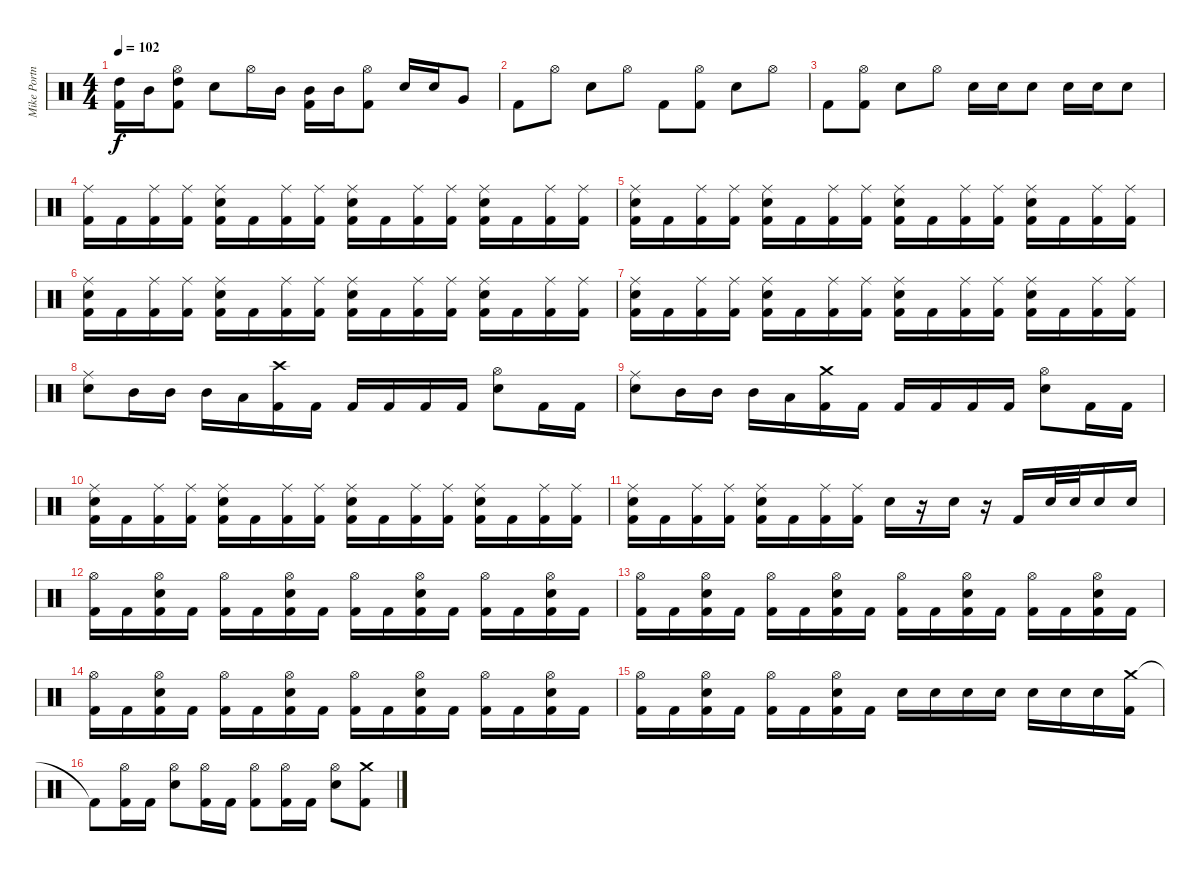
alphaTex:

\track ("Mike Portnoy Drum " "Mike Portn") {instrument percussion}
\staff {score}
\articulation defaults
\ts (4 4)
\tempo 102
\clef neutral
\ks c
("High Tom (hit)" "Kick (hit) 2").16{dy f} "Mid Tom (hit)".16 ("Hi-Hat (open)" "High Tom (hit)" "Kick (hit) 2").8 "Electric Snare (hit)".8 "Hi-Hat (open)".16 "Mid Tom (hit)".16 ("Mid Tom (hit)" "Kick (hit) 2").16 "Mid Tom (hit)".16 ("Hi-Hat (open)" "Kick (hit) 2").8 "Electric Snare (hit)".16 "Electric Snare (hit)".16 "Very Low Tom (hit)".8 |
"Kick (hit) 2".8 "Hi-Hat (open)".8 "Electric Snare (hit)".8 "Hi-Hat (open)".8 "Kick (hit) 2".8 ("Hi-Hat (open)" "Kick (hit) 2").8 "Electric Snare (hit)".8 "Hi-Hat (open)".8 |
"Kick (hit) 2".8 ("Hi-Hat (open)" "Kick (hit) 2").8 "Electric Snare (hit)".8 "Hi-Hat (open)".8 "Electric Snare (hit)".16 "Electric Snare (hit)".16 "Electric Snare (hit)".8 "Electric Snare (hit)".16 "Electric Snare (hit)".16 "Electric Snare (hit)".8 |
("Ride (middle)" "Kick (hit) 2").16 "Kick (hit) 2".16 ("Ride (middle)" "Kick (hit) 2").16 ("Ride (middle)" "Kick (hit) 2").16 ("Ride (middle)" "Electric Snare (hit)" "Kick (hit) 2").16 "Kick (hit) 2".16 ("Ride (middle)" "Kick (hit) 2").16 ("Ride (middle)" "Kick (hit) 2").16 ("Ride (middle)" "Electric Snare (hit)" "Kick (hit) 2").16 "Kick (hit) 2".16 ("Ride (middle)" "Kick (hit) 2").16 ("Ride (middle)" "Kick (hit) 2").16 ("Ride (middle)" "Electric Snare (hit)" "Kick (hit) 2").16 "Kick (hit) 2".16 ("Ride (middle)" "Kick (hit) 2").16 ("Ride (middle)" "Kick (hit) 2").16 |
("Ride (middle)" "Electric Snare (hit)" "Kick (hit) 2").16 "Kick (hit) 2".16 ("Ride (middle)" "Kick (hit) 2").16 ("Ride (middle)" "Kick (hit) 2").16 ("Ride (middle)" "Electric Snare (hit)" "Kick (hit) 2").16 "Kick (hit) 2".16 ("Ride (middle)" "Kick (hit) 2").16 ("Ride (middle)" "Kick (hit) 2").16 ("Ride (middle)" "Electric Snare (hit)" "Kick (hit) 2").16 "Kick (hit) 2".16 ("Ride (middle)" "Kick (hit) 2").16 ("Ride (middle)" "Kick (hit) 2").16 ("Ride (middle)" "Electric Snare (hit)" "Kick (hit) 2").16 "Kick (hit) 2".16 ("Ride (middle)" "Kick (hit) 2").16 ("Ride (middle)" "Kick (hit) 2").16 |
("Ride (middle)" "Electric Snare (hit)" "Kick (hit) 2").16 "Kick (hit) 2".16 ("Ride (middle)" "Kick (hit) 2").16 ("Ride (middle)" "Kick (hit) 2").16 ("Ride (middle)" "Electric Snare (hit)" "Kick (hit) 2").16 "Kick (hit) 2".16 ("Ride (middle)" "Kick (hit) 2").16 ("Ride (middle)" "Kick (hit) 2").16 ("Ride (middle)" "Electric Snare (hit)" "Kick (hit) 2").16 "Kick (hit) 2".16 ("Ride (middle)" "Kick (hit) 2").16 ("Ride (middle)" "Kick (hit) 2").16 ("Ride (middle)" "Electric Snare (hit)" "Kick (hit) 2").16 "Kick (hit) 2".16 ("Ride (middle)" "Kick (hit) 2").16 ("Ride (middle)" "Kick (hit) 2").16 |
("Ride (middle)" "Electric Snare (hit)" "Kick (hit) 2").16 "Kick (hit) 2".16 ("Ride (middle)" "Kick (hit) 2").16 ("Ride (middle)" "Kick (hit) 2").16 ("Ride (middle)" "Electric Snare (hit)" "Kick (hit) 2").16 "Kick (hit) 2".16 ("Ride (middle)" "Kick (hit) 2").16 ("Ride (middle)" "Kick (hit) 2").16 ("Ride (middle)" "Electric Snare (hit)" "Kick (hit) 2").16 "Kick (hit) 2".16 ("Ride (middle)" "Kick (hit) 2").16 ("Ride (middle)" "Kick (hit) 2").16 ("Ride (middle)" "Electric Snare (hit)" "Kick (hit) 2").16 "Kick (hit) 2".16 ("Ride (middle)" "Kick (hit) 2").16 ("Ride (middle)" "Kick (hit) 2").16 |
("Ride (middle)" "Electric Snare (hit)").8 "Mid Tom (hit)".16 "Mid Tom (hit)".16 "Mid Tom (hit)".16 "Low Tom (hit)".16 ("Crash high (hit)" "Kick (hit) 2").16 "Kick (hit) 2".16 "Kick (hit) 2".16 "Kick (hit) 2".16 "Kick (hit) 2".16 "Kick (hit) 2".16 ("Hi-Hat (open)" "Electric Snare (hit)").8 "Kick (hit) 2".16 "Kick (hit) 2".16 |
("Ride (middle)" "Electric Snare (hit)").8 "Mid Tom (hit)".16 "Mid Tom (hit)".16 "Mid Tom (hit)".16 "Low Tom (hit)".16 ("Crash medium (hit)" "Kick (hit) 2").16 "Kick (hit) 2".16 "Kick (hit) 2".16 "Kick (hit) 2".16 "Kick (hit) 2".16 "Kick (hit) 2".16 ("Hi-Hat (open)" "Electric Snare (hit)").8 "Kick (hit) 2".16 "Kick (hit) 2".16 |
("Ride (middle)" "Electric Snare (hit)" "Kick (hit) 2").16 "Kick (hit) 2".16 ("Ride (middle)" "Kick (hit) 2").16 ("Ride (middle)" "Kick (hit) 2").16 ("Ride (middle)" "Electric Snare (hit)" "Kick (hit) 2").16 "Kick (hit) 2".16 ("Ride (middle)" "Kick (hit) 2").16 ("Ride (middle)" "Kick (hit) 2").16 ("Ride (middle)" "Electric Snare (hit)" "Kick (hit) 2").16 "Kick (hit) 2".16 ("Ride (middle)" "Kick (hit) 2").16 ("Ride (middle)" "Kick (hit) 2").16 ("Ride (middle)" "Electric Snare (hit)" "Kick (hit) 2").16 "Kick (hit) 2".16 ("Ride (middle)" "Kick (hit) 2").16 ("Ride (middle)" "Kick (hit) 2").16 |
("Ride (middle)" "Electric Snare (hit)" "Kick (hit) 2").16 "Kick (hit) 2".16 ("Ride (middle)" "Kick (hit) 2").16 ("Ride (middle)" "Kick (hit) 2").16 ("Ride (middle)" "Electric Snare (hit)" "Kick (hit) 2").16 "Kick (hit) 2".16 ("Ride (middle)" "Kick (hit) 2").16 ("Ride (middle)" "Kick (hit) 2").16 "Electric Snare (hit)".16 r.16 "Electric Snare (hit)".16 r.16 "Kick (hit) 2".16 "Electric Snare (hit)".32 "Electric Snare (hit)".32 "Electric Snare (hit)".16 "Electric Snare (hit)".16 |
("Hi-Hat (open)" "Kick (hit) 2").16 "Kick (hit) 2".16 ("Hi-Hat (open)" "Electric Snare (hit)" "Kick (hit) 2").16 "Kick (hit) 2".16 ("Hi-Hat (open)" "Kick (hit) 2").16 "Kick (hit) 2".16 ("Hi-Hat (open)" "Electric Snare (hit)" "Kick (hit) 2").16 "Kick (hit) 2".16 ("Hi-Hat (open)" "Kick (hit) 2").16 "Kick (hit) 2".16 ("Hi-Hat (open)" "Electric Snare (hit)" "Kick (hit) 2").16 "Kick (hit) 2".16 ("Hi-Hat (open)" "Kick (hit) 2").16 "Kick (hit) 2".16 ("Hi-Hat (open)" "Electric Snare (hit)" "Kick (hit) 2").16 "Kick (hit) 2".16 |
("Hi-Hat (open)" "Kick (hit) 2").16 "Kick (hit) 2".16 ("Hi-Hat (open)" "Electric Snare (hit)" "Kick (hit) 2").16 "Kick (hit) 2".16 ("Hi-Hat (open)" "Kick (hit) 2").16 "Kick (hit) 2".16 ("Hi-Hat (open)" "Electric Snare (hit)" "Kick (hit) 2").16 "Kick (hit) 2".16 ("Hi-Hat (open)" "Kick (hit) 2").16 "Kick (hit) 2".16 ("Hi-Hat (open)" "Electric Snare (hit)" "Kick (hit) 2").16 "Kick (hit) 2".16 ("Hi-Hat (open)" "Kick (hit) 2").16 "Kick (hit) 2".16 ("Hi-Hat (open)" "Electric Snare (hit)" "Kick (hit) 2").16 "Kick (hit) 2".16 |
("Hi-Hat (open)" "Kick (hit) 2").16 "Kick (hit) 2".16 ("Hi-Hat (open)" "Electric Snare (hit)" "Kick (hit) 2").16 "Kick (hit) 2".16 ("Hi-Hat (open)" "Kick (hit) 2").16 "Kick (hit) 2".16 ("Hi-Hat (open)" "Electric Snare (hit)" "Kick (hit) 2").16 "Kick (hit) 2".16 ("Hi-Hat (open)" "Kick (hit) 2").16 "Kick (hit) 2".16 ("Hi-Hat (open)" "Electric Snare (hit)" "Kick (hit) 2").16 "Kick (hit) 2".16 ("Hi-Hat (open)" "Kick (hit) 2").16 "Kick (hit) 2".16 ("Hi-Hat (open)" "Electric Snare (hit)" "Kick (hit) 2").16 "Kick (hit) 2".16 |
("Hi-Hat (open)" "Kick (hit) 2").16 "Kick (hit) 2".16 ("Hi-Hat (open)" "Electric Snare (hit)" "Kick (hit) 2").16 "Kick (hit) 2".16 ("Hi-Hat (open)" "Kick (hit) 2").16 "Kick (hit) 2".16 ("Hi-Hat (open)" "Electric Snare (hit)" "Kick (hit) 2").16 "Kick (hit) 2".16 "Electric Snare (hit)".16 "Electric Snare (hit)".16 "Electric Snare (hit)".16 "Electric Snare (hit)".16 "Electric Snare (hit)".16 "Electric Snare (hit)".16 "Electric Snare (hit)".16 ("Crash medium (hit)" "Kick (hit) 2").16 |
"Kick (hit) 2"{t}.8 ("Hi-Hat (open)" "Kick (hit) 2").16 "Kick (hit) 2".16 ("Hi-Hat (open)" "Electric Snare (hit)").8 ("Hi-Hat (open)" "Kick (hit) 2").16 "Kick (hit) 2".16 ("Hi-Hat (open)" "Kick (hit) 2").8 ("Hi-Hat (open)" "Kick (hit) 2").16 "Kick (hit) 2".16 ("Hi-Hat (open)" "Electric Snare (hit)").8 ("Crash medium (hit)" "Kick (hit) 2").8
